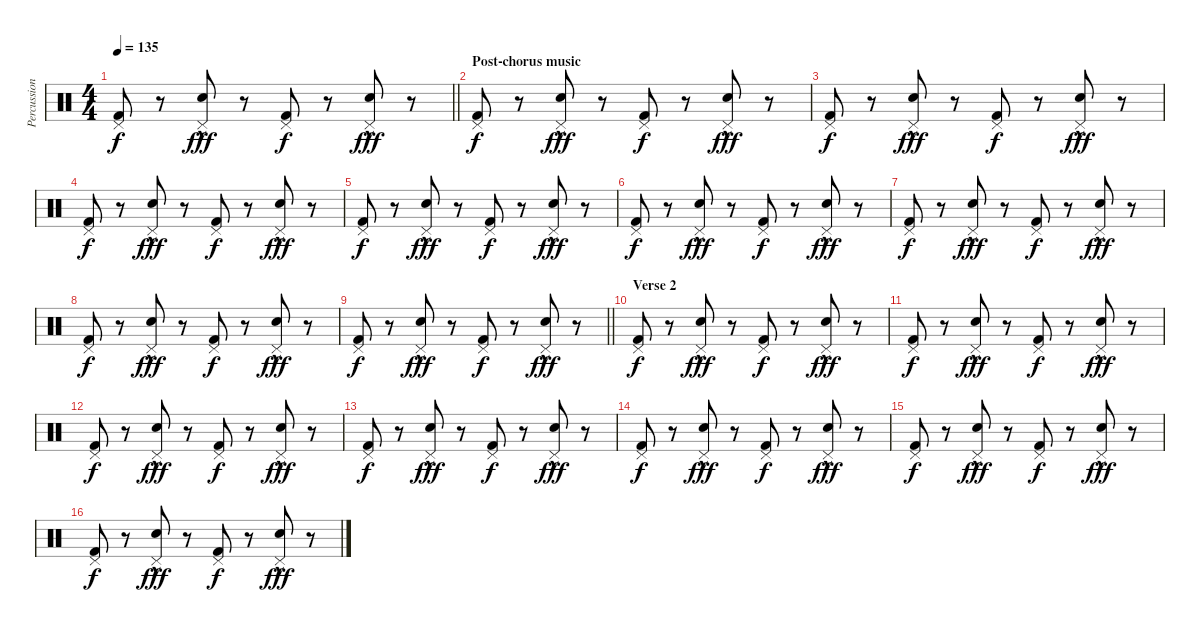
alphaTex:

\track ("Percussion" "Percussion") {instrument percussion}
\staff {score}
\articulation defaults
\ts (4 4)
\tempo 135
\clef neutral
\barLineRight lightlight
\ks c
("Kick (hit) 2" "Pedal Hi-Hat (hit)").8{dy f} r.8 ("Snare (hit) 2"{hac} "Pedal Hi-Hat (hit)").8{dy fff} r.8 ("Kick (hit) 2" "Pedal Hi-Hat (hit)").8{dy f} r.8 ("Snare (hit) 2"{hac} "Pedal Hi-Hat (hit)").8{dy fff} r.8 |
\section ("" "Post-chorus music")
("Kick (hit) 2" "Pedal Hi-Hat (hit)").8{dy f} r.8 ("Snare (hit) 2"{hac} "Pedal Hi-Hat (hit)").8{dy fff} r.8 ("Kick (hit) 2" "Pedal Hi-Hat (hit)").8{dy f} r.8 ("Snare (hit) 2"{hac} "Pedal Hi-Hat (hit)").8{dy fff} r.8 |
("Kick (hit) 2" "Pedal Hi-Hat (hit)").8{dy f} r.8 ("Snare (hit) 2"{hac} "Pedal Hi-Hat (hit)").8{dy fff} r.8 ("Kick (hit) 2" "Pedal Hi-Hat (hit)").8{dy f} r.8 ("Snare (hit) 2"{hac} "Pedal Hi-Hat (hit)").8{dy fff} r.8 |
("Kick (hit) 2" "Pedal Hi-Hat (hit)").8{dy f} r.8 ("Snare (hit) 2"{hac} "Pedal Hi-Hat (hit)").8{dy fff} r.8 ("Kick (hit) 2" "Pedal Hi-Hat (hit)").8{dy f} r.8 ("Snare (hit) 2"{hac} "Pedal Hi-Hat (hit)").8{dy fff} r.8 |
("Kick (hit) 2" "Pedal Hi-Hat (hit)").8{dy f} r.8 ("Snare (hit) 2"{hac} "Pedal Hi-Hat (hit)").8{dy fff} r.8 ("Kick (hit) 2" "Pedal Hi-Hat (hit)").8{dy f} r.8 ("Snare (hit) 2"{hac} "Pedal Hi-Hat (hit)").8{dy fff} r.8 |
("Kick (hit) 2" "Pedal Hi-Hat (hit)").8{dy f} r.8 ("Snare (hit) 2"{hac} "Pedal Hi-Hat (hit)").8{dy fff} r.8 ("Kick (hit) 2" "Pedal Hi-Hat (hit)").8{dy f} r.8 ("Snare (hit) 2"{hac} "Pedal Hi-Hat (hit)").8{dy fff} r.8 |
("Kick (hit) 2" "Pedal Hi-Hat (hit)").8{dy f} r.8 ("Snare (hit) 2"{hac} "Pedal Hi-Hat (hit)").8{dy fff} r.8 ("Kick (hit) 2" "Pedal Hi-Hat (hit)").8{dy f} r.8 ("Snare (hit) 2"{hac} "Pedal Hi-Hat (hit)").8{dy fff} r.8 |
("Kick (hit) 2" "Pedal Hi-Hat (hit)").8{dy f} r.8 ("Snare (hit) 2"{hac} "Pedal Hi-Hat (hit)").8{dy fff} r.8 ("Kick (hit) 2" "Pedal Hi-Hat (hit)").8{dy f} r.8 ("Snare (hit) 2"{hac} "Pedal Hi-Hat (hit)").8{dy fff} r.8 |
\barLineRight lightlight
("Kick (hit) 2" "Pedal Hi-Hat (hit)").8{dy f} r.8 ("Snare (hit) 2"{hac} "Pedal Hi-Hat (hit)").8{dy fff} r.8 ("Kick (hit) 2" "Pedal Hi-Hat (hit)").8{dy f} r.8 ("Snare (hit) 2"{hac} "Pedal Hi-Hat (hit)").8{dy fff} r.8 |
\section ("" "Verse 2")
("Kick (hit) 2" "Pedal Hi-Hat (hit)").8{dy f} r.8 ("Snare (hit) 2"{hac} "Pedal Hi-Hat (hit)").8{dy fff} r.8 ("Kick (hit) 2" "Pedal Hi-Hat (hit)").8{dy f} r.8 ("Snare (hit) 2"{hac} "Pedal Hi-Hat (hit)").8{dy fff} r.8 |
("Kick (hit) 2" "Pedal Hi-Hat (hit)").8{dy f} r.8 ("Snare (hit) 2"{hac} "Pedal Hi-Hat (hit)").8{dy fff} r.8 ("Kick (hit) 2" "Pedal Hi-Hat (hit)").8{dy f} r.8 ("Snare (hit) 2"{hac} "Pedal Hi-Hat (hit)").8{dy fff} r.8 |
("Kick (hit) 2" "Pedal Hi-Hat (hit)").8{dy f} r.8 ("Snare (hit) 2"{hac} "Pedal Hi-Hat (hit)").8{dy fff} r.8 ("Kick (hit) 2" "Pedal Hi-Hat (hit)").8{dy f} r.8 ("Snare (hit) 2"{hac} "Pedal Hi-Hat (hit)").8{dy fff} r.8 |
("Kick (hit) 2" "Pedal Hi-Hat (hit)").8{dy f} r.8 ("Snare (hit) 2"{hac} "Pedal Hi-Hat (hit)").8{dy fff} r.8 ("Kick (hit) 2" "Pedal Hi-Hat (hit)").8{dy f} r.8 ("Snare (hit) 2"{hac} "Pedal Hi-Hat (hit)").8{dy fff} r.8 |
("Kick (hit) 2" "Pedal Hi-Hat (hit)").8{dy f} r.8 ("Snare (hit) 2"{hac} "Pedal Hi-Hat (hit)").8{dy fff} r.8 ("Kick (hit) 2" "Pedal Hi-Hat (hit)").8{dy f} r.8 ("Snare (hit) 2"{hac} "Pedal Hi-Hat (hit)").8{dy fff} r.8 |
("Kick (hit) 2" "Pedal Hi-Hat (hit)").8{dy f} r.8 ("Snare (hit) 2"{hac} "Pedal Hi-Hat (hit)").8{dy fff} r.8 ("Kick (hit) 2" "Pedal Hi-Hat (hit)").8{dy f} r.8 ("Snare (hit) 2"{hac} "Pedal Hi-Hat (hit)").8{dy fff} r.8 |
("Kick (hit) 2" "Pedal Hi-Hat (hit)").8{dy f} r.8 ("Snare (hit) 2"{hac} "Pedal Hi-Hat (hit)").8{dy fff} r.8 ("Kick (hit) 2" "Pedal Hi-Hat (hit)").8{dy f} r.8 ("Snare (hit) 2"{hac} "Pedal Hi-Hat (hit)").8{dy fff} r.8
